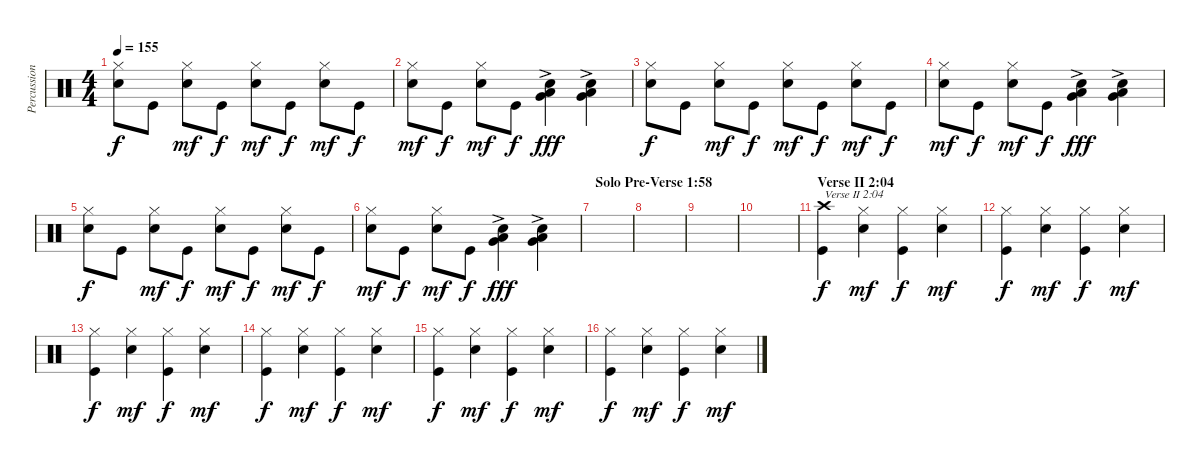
\track ("Percussion" "Percussion") {instrument percussion}
\staff {score}
\articulation defaults
\ts (4 4)
\tempo 155
\clef neutral
\ks c
("Electric Snare (hit)" "Hi-Hat (closed)").8{dy f} "Kick (hit)".8 ("Electric Snare (hit)" "Hi-Hat (closed)").8{dy mf} "Kick (hit)".8{dy f} ("Electric Snare (hit)" "Hi-Hat (closed)").8{dy mf} "Kick (hit)".8{dy f} ("Electric Snare (hit)" "Hi-Hat (closed)").8{dy mf} "Kick (hit)".8{dy f} |
("Electric Snare (hit)" "Hi-Hat (closed)").8{dy mf} "Kick (hit)".8{dy f} ("Electric Snare (hit)" "Hi-Hat (closed)").8{dy mf} "Kick (hit)".8{dy f} ("Very Low Tom (hit)"{ac} "Low Tom (hit)"{ac} "Electric Snare (hit)").4{dy fff} ("Very Low Tom (hit)"{ac} "Low Tom (hit)"{ac} "Electric Snare (hit)").4 |
("Electric Snare (hit)" "Hi-Hat (closed)").8{dy f} "Kick (hit)".8 ("Electric Snare (hit)" "Hi-Hat (closed)").8{dy mf} "Kick (hit)".8{dy f} ("Electric Snare (hit)" "Hi-Hat (closed)").8{dy mf} "Kick (hit)".8{dy f} ("Electric Snare (hit)" "Hi-Hat (closed)").8{dy mf} "Kick (hit)".8{dy f} |
("Electric Snare (hit)" "Hi-Hat (closed)").8{dy mf} "Kick (hit)".8{dy f} ("Electric Snare (hit)" "Hi-Hat (closed)").8{dy mf} "Kick (hit)".8{dy f} ("Very Low Tom (hit)"{ac} "Low Tom (hit)"{ac} "Electric Snare (hit)").4{dy fff} ("Very Low Tom (hit)"{ac} "Low Tom (hit)"{ac} "Electric Snare (hit)").4 |
("Electric Snare (hit)" "Hi-Hat (closed)").8{dy f} "Kick (hit)".8 ("Electric Snare (hit)" "Hi-Hat (closed)").8{dy mf} "Kick (hit)".8{dy f} ("Electric Snare (hit)" "Hi-Hat (closed)").8{dy mf} "Kick (hit)".8{dy f} ("Electric Snare (hit)" "Hi-Hat (closed)").8{dy mf} "Kick (hit)".8{dy f} |
("Electric Snare (hit)" "Hi-Hat (closed)").8{dy mf} "Kick (hit)".8{dy f} ("Electric Snare (hit)" "Hi-Hat (closed)").8{dy mf} "Kick (hit)".8{dy f} ("Very Low Tom (hit)"{ac} "Low Tom (hit)"{ac} "Electric Snare (hit)").4{dy fff} ("Very Low Tom (hit)"{ac} "Low Tom (hit)"{ac} "Electric Snare (hit)").4 |
\section ("" "Solo Pre-Verse 1:58")
|
|
|
|
\section ("" "Verse II 2:04")
("Kick (hit)" "Crash high (hit)").4{txt "Verse II 2:04" dy f} ("Electric Snare (hit)" "Hi-Hat (closed)").4{dy mf} ("Kick (hit)" "Hi-Hat (closed)").4{dy f} ("Electric Snare (hit)" "Hi-Hat (closed)").4{dy mf} |
("Kick (hit)" "Hi-Hat (closed)").4{dy f} ("Electric Snare (hit)" "Hi-Hat (closed)").4{dy mf} ("Kick (hit)" "Hi-Hat (closed)").4{dy f} ("Electric Snare (hit)" "Hi-Hat (closed)").4{dy mf} |
("Kick (hit)" "Hi-Hat (closed)").4{dy f} ("Electric Snare (hit)" "Hi-Hat (closed)").4{dy mf} ("Kick (hit)" "Hi-Hat (closed)").4{dy f} ("Electric Snare (hit)" "Hi-Hat (closed)").4{dy mf} |
("Kick (hit)" "Hi-Hat (closed)").4{dy f} ("Electric Snare (hit)" "Hi-Hat (closed)").4{dy mf} ("Kick (hit)" "Hi-Hat (closed)").4{dy f} ("Electric Snare (hit)" "Hi-Hat (closed)").4{dy mf} |
("Kick (hit)" "Hi-Hat (closed)").4{dy f} ("Electric Snare (hit)" "Hi-Hat (closed)").4{dy mf} ("Kick (hit)" "Hi-Hat (closed)").4{dy f} ("Electric Snare (hit)" "Hi-Hat (closed)").4{dy mf} |
("Kick (hit)" "Hi-Hat (closed)").4{dy f} ("Electric Snare (hit)" "Hi-Hat (closed)").4{dy mf} ("Kick (hit)" "Hi-Hat (closed)").4{dy f} ("Electric Snare (hit)" "Hi-Hat (closed)").4{dy mf}
